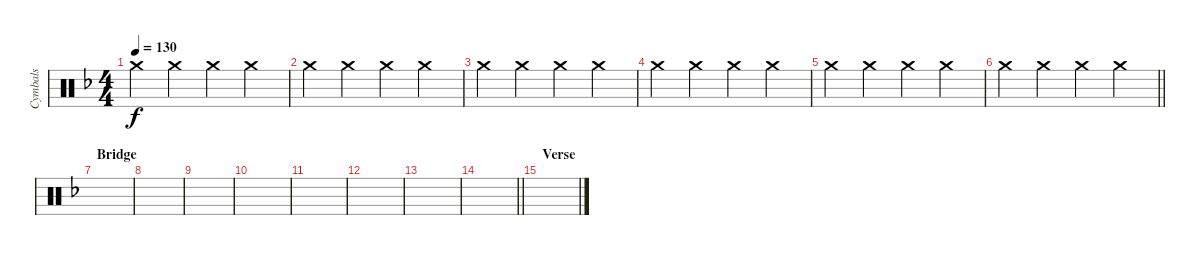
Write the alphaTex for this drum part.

\track ("Cymbals" "Cymbals") {instrument percussion}
\staff {score}
\articulation defaults
\ts (4 4)
\tempo 130
\clef neutral
\ks f "Crash medium (hit)".4{dy f} "Crash medium (hit)".4 "Crash medium (hit)".4 "Crash medium (hit)".4
|
"Crash medium (hit)".4 "Crash medium (hit)".4 "Crash medium (hit)".4 "Crash medium (hit)".4 |
"Crash medium (hit)".4 "Crash medium (hit)".4 "Crash medium (hit)".4 "Crash medium (hit)".4 |
"Crash medium (hit)".4 "Crash medium (hit)".4 "Crash medium (hit)".4 "Crash medium (hit)".4 |
"Crash medium (hit)".4 "Crash medium (hit)".4 "Crash medium (hit)".4 "Crash medium (hit)".4 |
\barLineRight lightlight "Crash medium (hit)".4 "Crash medium (hit)".4 "Crash medium (hit)".4 "Crash medium (hit)".4
|
\section ("" "Bridge")
|
|
|
|
|
|
|
\barLineRight lightlight
|
\section ("" "Verse")
